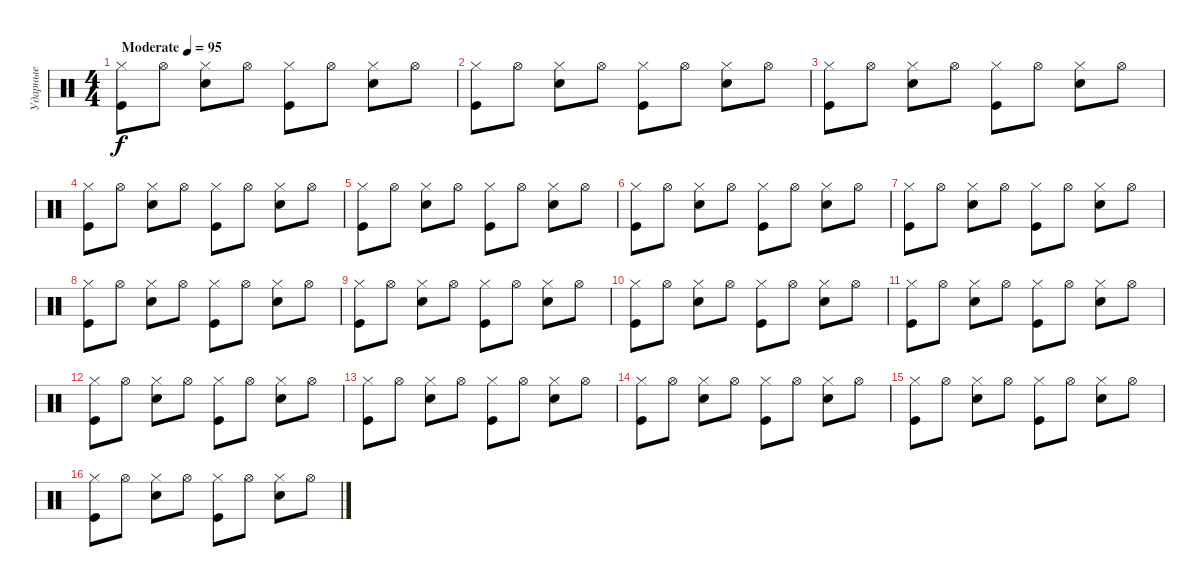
\track ("Ударные" "Ударные") {solo instrument percussion}
\staff {score}
\articulation defaults
\ts (4 4)
\tempo (95 "Moderate")
\clef neutral
\ks c
("Kick (hit)" "Hi-Hat (closed)").8{dy f} "Hi-Hat (open)".8 ("Snare (hit) 2" "Hi-Hat (closed)").8 "Hi-Hat (open)".8 ("Kick (hit)" "Hi-Hat (closed)").8 "Hi-Hat (open)".8 ("Snare (hit) 2" "Hi-Hat (closed)").8 "Hi-Hat (open)".8 |
("Kick (hit)" "Hi-Hat (closed)").8 "Hi-Hat (open)".8 ("Snare (hit) 2" "Hi-Hat (closed)").8 "Hi-Hat (open)".8 ("Kick (hit)" "Hi-Hat (closed)").8 "Hi-Hat (open)".8 ("Snare (hit) 2" "Hi-Hat (closed)").8 "Hi-Hat (open)".8 |
("Kick (hit)" "Hi-Hat (closed)").8 "Hi-Hat (open)".8 ("Snare (hit) 2" "Hi-Hat (closed)").8 "Hi-Hat (open)".8 ("Kick (hit)" "Hi-Hat (closed)").8 "Hi-Hat (open)".8 ("Snare (hit) 2" "Hi-Hat (closed)").8 "Hi-Hat (open)".8 |
("Kick (hit)" "Hi-Hat (closed)").8 "Hi-Hat (open)".8 ("Snare (hit) 2" "Hi-Hat (closed)").8 "Hi-Hat (open)".8 ("Kick (hit)" "Hi-Hat (closed)").8 "Hi-Hat (open)".8 ("Snare (hit) 2" "Hi-Hat (closed)").8 "Hi-Hat (open)".8 |
("Kick (hit)" "Hi-Hat (closed)").8 "Hi-Hat (open)".8 ("Snare (hit) 2" "Hi-Hat (closed)").8 "Hi-Hat (open)".8 ("Kick (hit)" "Hi-Hat (closed)").8 "Hi-Hat (open)".8 ("Snare (hit) 2" "Hi-Hat (closed)").8 "Hi-Hat (open)".8 |
("Kick (hit)" "Hi-Hat (closed)").8 "Hi-Hat (open)".8 ("Snare (hit) 2" "Hi-Hat (closed)").8 "Hi-Hat (open)".8 ("Kick (hit)" "Hi-Hat (closed)").8 "Hi-Hat (open)".8 ("Snare (hit) 2" "Hi-Hat (closed)").8 "Hi-Hat (open)".8 |
("Kick (hit)" "Hi-Hat (closed)").8 "Hi-Hat (open)".8 ("Snare (hit) 2" "Hi-Hat (closed)").8 "Hi-Hat (open)".8 ("Kick (hit)" "Hi-Hat (closed)").8 "Hi-Hat (open)".8 ("Snare (hit) 2" "Hi-Hat (closed)").8 "Hi-Hat (open)".8 |
("Kick (hit)" "Hi-Hat (closed)").8 "Hi-Hat (open)".8 ("Snare (hit) 2" "Hi-Hat (closed)").8 "Hi-Hat (open)".8 ("Kick (hit)" "Hi-Hat (closed)").8 "Hi-Hat (open)".8 ("Snare (hit) 2" "Hi-Hat (closed)").8 "Hi-Hat (open)".8 |
("Kick (hit)" "Hi-Hat (closed)").8 "Hi-Hat (open)".8 ("Snare (hit) 2" "Hi-Hat (closed)").8 "Hi-Hat (open)".8 ("Kick (hit)" "Hi-Hat (closed)").8 "Hi-Hat (open)".8 ("Snare (hit) 2" "Hi-Hat (closed)").8 "Hi-Hat (open)".8 |
("Kick (hit)" "Hi-Hat (closed)").8 "Hi-Hat (open)".8 ("Snare (hit) 2" "Hi-Hat (closed)").8 "Hi-Hat (open)".8 ("Kick (hit)" "Hi-Hat (closed)").8 "Hi-Hat (open)".8 ("Snare (hit) 2" "Hi-Hat (closed)").8 "Hi-Hat (open)".8 |
("Kick (hit)" "Hi-Hat (closed)").8 "Hi-Hat (open)".8 ("Snare (hit) 2" "Hi-Hat (closed)").8 "Hi-Hat (open)".8 ("Kick (hit)" "Hi-Hat (closed)").8 "Hi-Hat (open)".8 ("Snare (hit) 2" "Hi-Hat (closed)").8 "Hi-Hat (open)".8 |
("Kick (hit)" "Hi-Hat (closed)").8 "Hi-Hat (open)".8 ("Snare (hit) 2" "Hi-Hat (closed)").8 "Hi-Hat (open)".8 ("Kick (hit)" "Hi-Hat (closed)").8 "Hi-Hat (open)".8 ("Snare (hit) 2" "Hi-Hat (closed)").8 "Hi-Hat (open)".8 |
("Kick (hit)" "Hi-Hat (closed)").8 "Hi-Hat (open)".8 ("Snare (hit) 2" "Hi-Hat (closed)").8 "Hi-Hat (open)".8 ("Kick (hit)" "Hi-Hat (closed)").8 "Hi-Hat (open)".8 ("Snare (hit) 2" "Hi-Hat (closed)").8 "Hi-Hat (open)".8 |
("Kick (hit)" "Hi-Hat (closed)").8 "Hi-Hat (open)".8 ("Snare (hit) 2" "Hi-Hat (closed)").8 "Hi-Hat (open)".8 ("Kick (hit)" "Hi-Hat (closed)").8 "Hi-Hat (open)".8 ("Snare (hit) 2" "Hi-Hat (closed)").8 "Hi-Hat (open)".8 |
("Kick (hit)" "Hi-Hat (closed)").8 "Hi-Hat (open)".8 ("Snare (hit) 2" "Hi-Hat (closed)").8 "Hi-Hat (open)".8 ("Kick (hit)" "Hi-Hat (closed)").8 "Hi-Hat (open)".8 ("Snare (hit) 2" "Hi-Hat (closed)").8 "Hi-Hat (open)".8 |
("Kick (hit)" "Hi-Hat (closed)").8 "Hi-Hat (open)".8 ("Snare (hit) 2" "Hi-Hat (closed)").8 "Hi-Hat (open)".8 ("Kick (hit)" "Hi-Hat (closed)").8 "Hi-Hat (open)".8 ("Snare (hit) 2" "Hi-Hat (closed)").8 "Hi-Hat (open)".8
